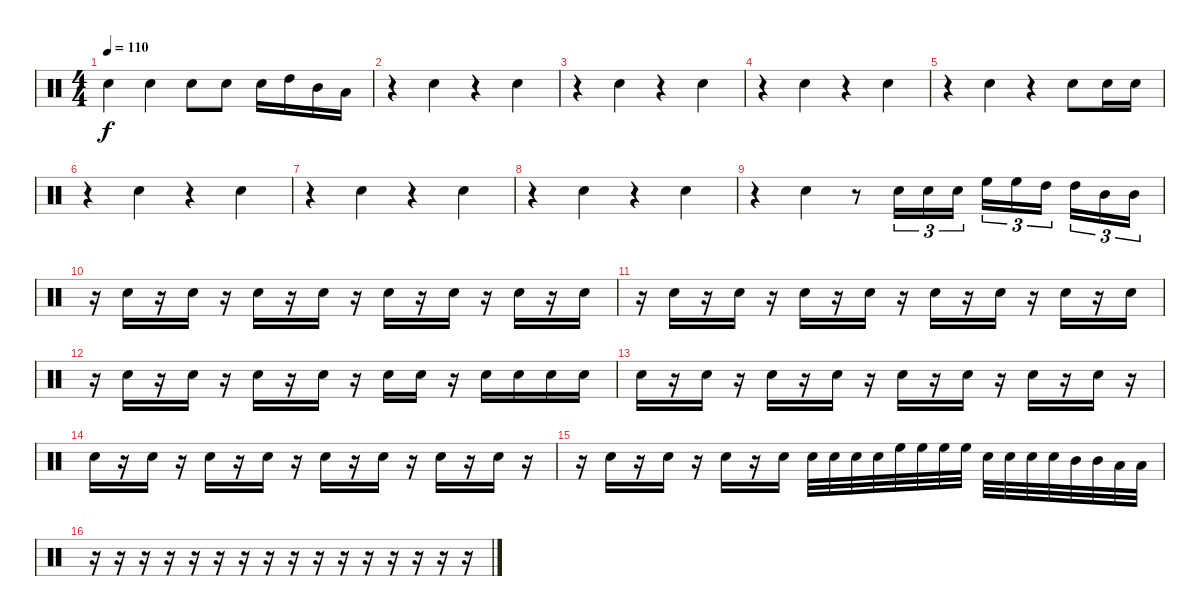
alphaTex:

\track "" {instrument percussion}
\staff {score}
\articulation defaults
\ts (4 4)
\tempo 110
\clef neutral
\ks c "Electric Snare (hit)".4{dy f} "Electric Snare (hit)".4 "Electric Snare (hit)".8 "Electric Snare (hit)".8 "Electric Snare (hit)".16 "High Tom (hit)".16 "Mid Tom (hit)".16 "Low Tom (hit)".16
|
r.4 "Electric Snare (hit)".4 r.4 "Electric Snare (hit)".4 |
r.4 "Electric Snare (hit)".4 r.4 "Electric Snare (hit)".4 |
r.4 "Electric Snare (hit)".4 r.4 "Electric Snare (hit)".4 |
r.4 "Electric Snare (hit)".4 r.4 "Electric Snare (hit)".8 "Electric Snare (hit)".16 "Electric Snare (hit)".16 |
r.4 "Electric Snare (hit)".4 r.4 "Electric Snare (hit)".4 |
r.4 "Electric Snare (hit)".4 r.4 "Electric Snare (hit)".4 |
r.4 "Electric Snare (hit)".4 r.4 "Electric Snare (hit)".4 |
r.4 "Electric Snare (hit)".4 r.8 "Electric Snare (hit)".16{tu (3 2)} "Electric Snare (hit)".16{tu (3 2)} "Electric Snare (hit)".16{tu (3 2)} "High Floor Tom (hit)".16{tu (3 2)} "High Floor Tom (hit)".16{tu (3 2)} "High Tom (hit)".16{tu (3 2)} "High Tom (hit)".16{tu (3 2)} "Mid Tom (hit)".16{tu (3 2)} "Mid Tom (hit)".16{tu (3 2)} |
r.16 "Electric Snare (hit)".16 r.16 "Electric Snare (hit)".16 r.16 "Electric Snare (hit)".16 r.16 "Electric Snare (hit)".16 r.16 "Electric Snare (hit)".16 r.16 "Electric Snare (hit)".16 r.16 "Electric Snare (hit)".16 r.16 "Electric Snare (hit)".16 |
r.16 "Electric Snare (hit)".16 r.16 "Electric Snare (hit)".16 r.16 "Electric Snare (hit)".16 r.16 "Electric Snare (hit)".16 r.16 "Electric Snare (hit)".16 r.16 "Electric Snare (hit)".16 r.16 "Electric Snare (hit)".16 r.16 "Electric Snare (hit)".16 |
r.16 "Electric Snare (hit)".16 r.16 "Electric Snare (hit)".16 r.16 "Electric Snare (hit)".16 r.16 "Electric Snare (hit)".16 r.16 "Electric Snare (hit)".16 "Electric Snare (hit)".16 r.16 "Electric Snare (hit)".16 "Electric Snare (hit)".16 "Electric Snare (hit)".16 "Electric Snare (hit)".16 |
"Electric Snare (hit)".16 r.16 "Electric Snare (hit)".16 r.16 "Electric Snare (hit)".16 r.16 "Electric Snare (hit)".16 r.16 "Electric Snare (hit)".16 r.16 "Electric Snare (hit)".16 r.16 "Electric Snare (hit)".16 r.16 "Electric Snare (hit)".16 r.16 |
"Electric Snare (hit)".16 r.16 "Electric Snare (hit)".16 r.16 "Electric Snare (hit)".16 r.16 "Electric Snare (hit)".16 r.16 "Electric Snare (hit)".16 r.16 "Electric Snare (hit)".16 r.16 "Electric Snare (hit)".16 r.16 "Electric Snare (hit)".16 r.16 |
r.16 "Electric Snare (hit)".16 r.16 "Electric Snare (hit)".16 r.16 "Electric Snare (hit)".16 r.16 "Electric Snare (hit)".16 "Electric Snare (hit)".32 "Electric Snare (hit)".32 "Electric Snare (hit)".32 "Electric Snare (hit)".32 "High Floor Tom (hit)".32 "High Floor Tom (hit)".32 "High Floor Tom (hit)".32 "High Floor Tom (hit)".32 "Electric Snare (hit)".32 "Electric Snare (hit)".32 "Electric Snare (hit)".32 "Electric Snare (hit)".32 "Mid Tom (hit)".32 "Mid Tom (hit)".32 "Low Tom (hit)".32 "Low Tom (hit)".32 |
r.16 r.16 r.16 r.16 r.16 r.16 r.16 r.16 r.16 r.16 r.16 r.16 r.16 r.16 r.16 r.16
